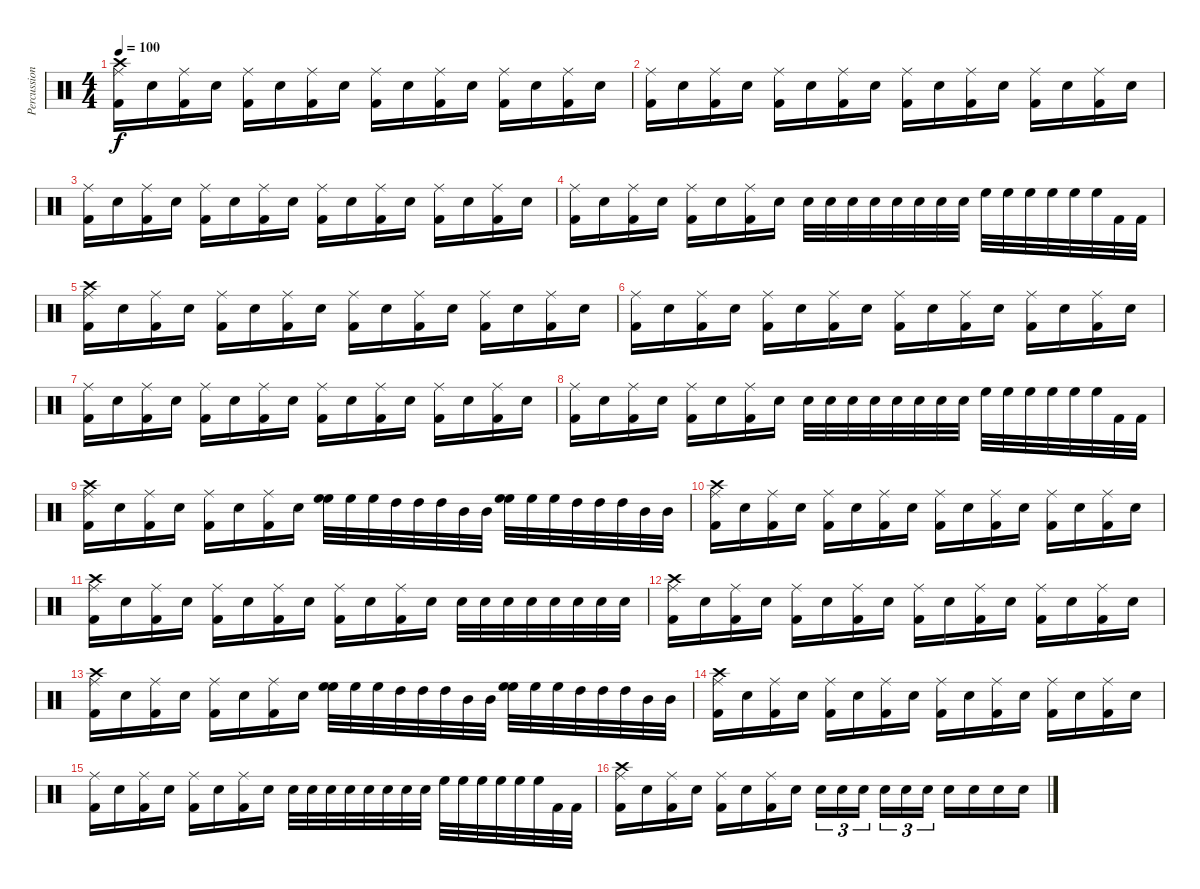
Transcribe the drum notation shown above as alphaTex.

\track ("Percussion" "Percussion") {instrument percussion}
\staff {score}
\articulation defaults
\ts (4 4)
\tempo 100
\clef neutral
\ks c
("Crash high (hit)" "Ride (middle)" "Kick (hit) 2").16{dy f} "Snare (hit) 2".16 ("Ride (middle)" "Kick (hit) 2").16 "Snare (hit) 2".16 ("Ride (middle)" "Kick (hit) 2").16 "Snare (hit) 2".16 ("Ride (middle)" "Kick (hit) 2").16 "Snare (hit) 2".16 ("Ride (middle)" "Kick (hit) 2").16 "Snare (hit) 2".16 ("Ride (middle)" "Kick (hit) 2").16 "Snare (hit) 2".16 ("Ride (middle)" "Kick (hit) 2").16 "Snare (hit) 2".16 ("Ride (middle)" "Kick (hit) 2").16 "Snare (hit) 2".16 |
("Ride (middle)" "Kick (hit) 2").16 "Snare (hit) 2".16 ("Ride (middle)" "Kick (hit) 2").16 "Snare (hit) 2".16 ("Ride (middle)" "Kick (hit) 2").16 "Snare (hit) 2".16 ("Ride (middle)" "Kick (hit) 2").16 "Snare (hit) 2".16 ("Ride (middle)" "Kick (hit) 2").16 "Snare (hit) 2".16 ("Ride (middle)" "Kick (hit) 2").16 "Snare (hit) 2".16 ("Ride (middle)" "Kick (hit) 2").16 "Snare (hit) 2".16 ("Ride (middle)" "Kick (hit) 2").16 "Snare (hit) 2".16 |
("Ride (middle)" "Kick (hit) 2").16 "Snare (hit) 2".16 ("Ride (middle)" "Kick (hit) 2").16 "Snare (hit) 2".16 ("Ride (middle)" "Kick (hit) 2").16 "Snare (hit) 2".16 ("Ride (middle)" "Kick (hit) 2").16 "Snare (hit) 2".16 ("Ride (middle)" "Kick (hit) 2").16 "Snare (hit) 2".16 ("Ride (middle)" "Kick (hit) 2").16 "Snare (hit) 2".16 ("Ride (middle)" "Kick (hit) 2").16 "Snare (hit) 2".16 ("Ride (middle)" "Kick (hit) 2").16 "Snare (hit) 2".16 |
("Ride (middle)" "Kick (hit) 2").16 "Snare (hit) 2".16 ("Ride (middle)" "Kick (hit) 2").16 "Snare (hit) 2".16 ("Ride (middle)" "Kick (hit) 2").16 "Snare (hit) 2".16 ("Ride (middle)" "Kick (hit) 2").16 "Snare (hit) 2".16 "Snare (hit) 2".32 "Snare (hit) 2".32 "Snare (hit) 2".32 "Snare (hit) 2".32 "Snare (hit) 2".32 "Snare (hit) 2".32 "Snare (hit) 2".32 "Snare (hit) 2".32 "High Floor Tom (hit)".32 "High Floor Tom (hit)".32 "High Floor Tom (hit)".32 "High Floor Tom (hit)".32 "High Floor Tom (hit)".32 "High Floor Tom (hit)".32 "Kick (hit) 2".32 "Kick (hit) 2".32 |
("Crash high (hit)" "Ride (middle)" "Kick (hit) 2").16 "Snare (hit) 2".16 ("Ride (middle)" "Kick (hit) 2").16 "Snare (hit) 2".16 ("Ride (middle)" "Kick (hit) 2").16 "Snare (hit) 2".16 ("Ride (middle)" "Kick (hit) 2").16 "Snare (hit) 2".16 ("Ride (middle)" "Kick (hit) 2").16 "Snare (hit) 2".16 ("Ride (middle)" "Kick (hit) 2").16 "Snare (hit) 2".16 ("Ride (middle)" "Kick (hit) 2").16 "Snare (hit) 2".16 ("Ride (middle)" "Kick (hit) 2").16 "Snare (hit) 2".16 |
("Ride (middle)" "Kick (hit) 2").16 "Snare (hit) 2".16 ("Ride (middle)" "Kick (hit) 2").16 "Snare (hit) 2".16 ("Ride (middle)" "Kick (hit) 2").16 "Snare (hit) 2".16 ("Ride (middle)" "Kick (hit) 2").16 "Snare (hit) 2".16 ("Ride (middle)" "Kick (hit) 2").16 "Snare (hit) 2".16 ("Ride (middle)" "Kick (hit) 2").16 "Snare (hit) 2".16 ("Ride (middle)" "Kick (hit) 2").16 "Snare (hit) 2".16 ("Ride (middle)" "Kick (hit) 2").16 "Snare (hit) 2".16 |
("Ride (middle)" "Kick (hit) 2").16 "Snare (hit) 2".16 ("Ride (middle)" "Kick (hit) 2").16 "Snare (hit) 2".16 ("Ride (middle)" "Kick (hit) 2").16 "Snare (hit) 2".16 ("Ride (middle)" "Kick (hit) 2").16 "Snare (hit) 2".16 ("Ride (middle)" "Kick (hit) 2").16 "Snare (hit) 2".16 ("Ride (middle)" "Kick (hit) 2").16 "Snare (hit) 2".16 ("Ride (middle)" "Kick (hit) 2").16 "Snare (hit) 2".16 ("Ride (middle)" "Kick (hit) 2").16 "Snare (hit) 2".16 |
("Ride (middle)" "Kick (hit) 2").16 "Snare (hit) 2".16 ("Ride (middle)" "Kick (hit) 2").16 "Snare (hit) 2".16 ("Ride (middle)" "Kick (hit) 2").16 "Snare (hit) 2".16 ("Ride (middle)" "Kick (hit) 2").16 "Snare (hit) 2".16 "Snare (hit) 2".32 "Snare (hit) 2".32 "Snare (hit) 2".32 "Snare (hit) 2".32 "Snare (hit) 2".32 "Snare (hit) 2".32 "Snare (hit) 2".32 "Snare (hit) 2".32 "High Floor Tom (hit)".32 "High Floor Tom (hit)".32 "High Floor Tom (hit)".32 "High Floor Tom (hit)".32 "High Floor Tom (hit)".32 "High Floor Tom (hit)".32 "Kick (hit) 2".32 "Kick (hit) 2".32 |
("Crash high (hit)" "Ride (middle)" "Kick (hit) 2").16 "Snare (hit) 2".16 ("Ride (middle)" "Kick (hit) 2").16 "Snare (hit) 2".16 ("Ride (middle)" "Kick (hit) 2").16 "Snare (hit) 2".16 ("Ride (middle)" "Kick (hit) 2").16 "Snare (hit) 2".16 ("High Floor Tom (hit)" "High Floor Tom (hit)").32 "High Floor Tom (hit)".32 "High Floor Tom (hit)".32 "High Tom (hit)".32 "High Tom (hit)".32 "High Tom (hit)".32 "Mid Tom (hit)".32 "Mid Tom (hit)".32 ("High Floor Tom (hit)" "High Floor Tom (hit)").32 "High Floor Tom (hit)".32 "High Floor Tom (hit)".32 "High Tom (hit)".32 "High Tom (hit)".32 "High Tom (hit)".32 "Mid Tom (hit)".32 "Mid Tom (hit)".32 |
("Crash high (hit)" "Ride (middle)" "Kick (hit) 2").16 "Snare (hit) 2".16 ("Ride (middle)" "Kick (hit) 2").16 "Snare (hit) 2".16 ("Ride (middle)" "Kick (hit) 2").16 "Snare (hit) 2".16 ("Ride (middle)" "Kick (hit) 2").16 "Snare (hit) 2".16 ("Ride (middle)" "Kick (hit) 2").16 "Snare (hit) 2".16 ("Ride (middle)" "Kick (hit) 2").16 "Snare (hit) 2".16 ("Ride (middle)" "Kick (hit) 2").16 "Snare (hit) 2".16 ("Ride (middle)" "Kick (hit) 2").16 "Snare (hit) 2".16 |
("Crash high (hit)" "Ride (middle)" "Kick (hit) 2").16 "Snare (hit) 2".16 ("Ride (middle)" "Kick (hit) 2").16 "Snare (hit) 2".16 ("Ride (middle)" "Kick (hit) 2").16 "Snare (hit) 2".16 ("Ride (middle)" "Kick (hit) 2").16 "Snare (hit) 2".16 ("Ride (middle)" "Kick (hit) 2").16 "Snare (hit) 2".16 ("Ride (middle)" "Kick (hit) 2").16 "Snare (hit) 2".16 "Snare (hit) 2".32 "Snare (hit) 2".32 "Snare (hit) 2".32 "Snare (hit) 2".32 "Snare (hit) 2".32 "Snare (hit) 2".32 "Snare (hit) 2".32 "Snare (hit) 2".32 |
("Crash high (hit)" "Ride (middle)" "Kick (hit) 2").16 "Snare (hit) 2".16 ("Ride (middle)" "Kick (hit) 2").16 "Snare (hit) 2".16 ("Ride (middle)" "Kick (hit) 2").16 "Snare (hit) 2".16 ("Ride (middle)" "Kick (hit) 2").16 "Snare (hit) 2".16 ("Ride (middle)" "Kick (hit) 2").16 "Snare (hit) 2".16 ("Ride (middle)" "Kick (hit) 2").16 "Snare (hit) 2".16 ("Ride (middle)" "Kick (hit) 2").16 "Snare (hit) 2".16 ("Ride (middle)" "Kick (hit) 2").16 "Snare (hit) 2".16 |
("Crash high (hit)" "Ride (middle)" "Kick (hit) 2").16 "Snare (hit) 2".16 ("Ride (middle)" "Kick (hit) 2").16 "Snare (hit) 2".16 ("Ride (middle)" "Kick (hit) 2").16 "Snare (hit) 2".16 ("Ride (middle)" "Kick (hit) 2").16 "Snare (hit) 2".16 ("High Floor Tom (hit)" "High Floor Tom (hit)").32 "High Floor Tom (hit)".32 "High Floor Tom (hit)".32 "High Tom (hit)".32 "High Tom (hit)".32 "High Tom (hit)".32 "Mid Tom (hit)".32 "Mid Tom (hit)".32 ("High Floor Tom (hit)" "High Floor Tom (hit)").32 "High Floor Tom (hit)".32 "High Floor Tom (hit)".32 "High Tom (hit)".32 "High Tom (hit)".32 "High Tom (hit)".32 "Mid Tom (hit)".32 "Mid Tom (hit)".32 |
("Crash high (hit)" "Ride (middle)" "Kick (hit) 2").16 "Snare (hit) 2".16 ("Ride (middle)" "Kick (hit) 2").16 "Snare (hit) 2".16 ("Ride (middle)" "Kick (hit) 2").16 "Snare (hit) 2".16 ("Ride (middle)" "Kick (hit) 2").16 "Snare (hit) 2".16 ("Ride (middle)" "Kick (hit) 2").16 "Snare (hit) 2".16 ("Ride (middle)" "Kick (hit) 2").16 "Snare (hit) 2".16 ("Ride (middle)" "Kick (hit) 2").16 "Snare (hit) 2".16 ("Ride (middle)" "Kick (hit) 2").16 "Snare (hit) 2".16 |
("Ride (middle)" "Kick (hit) 2").16 "Snare (hit) 2".16 ("Ride (middle)" "Kick (hit) 2").16 "Snare (hit) 2".16 ("Ride (middle)" "Kick (hit) 2").16 "Snare (hit) 2".16 ("Ride (middle)" "Kick (hit) 2").16 "Snare (hit) 2".16 "Snare (hit) 2".32 "Snare (hit) 2".32 "Snare (hit) 2".32 "Snare (hit) 2".32 "Snare (hit) 2".32 "Snare (hit) 2".32 "Snare (hit) 2".32 "Snare (hit) 2".32 "High Floor Tom (hit)".32 "High Floor Tom (hit)".32 "High Floor Tom (hit)".32 "High Floor Tom (hit)".32 "High Floor Tom (hit)".32 "High Floor Tom (hit)".32 "Kick (hit) 2".32 "Kick (hit) 2".32 |
("Crash high (hit)" "Ride (middle)" "Kick (hit) 2").16 "Snare (hit) 2".16 ("Ride (middle)" "Kick (hit) 2").16 "Snare (hit) 2".16 ("Ride (middle)" "Kick (hit) 2").16 "Snare (hit) 2".16 ("Ride (middle)" "Kick (hit) 2").16 "Snare (hit) 2".16 "Snare (hit) 2".16{tu (3 2)} "Snare (hit) 2".16{tu (3 2)} "Snare (hit) 2".16{tu (3 2)} "Snare (hit) 2".16{tu (3 2)} "Snare (hit) 2".16{tu (3 2)} "Snare (hit) 2".16{tu (3 2)} "Snare (hit) 2".16 "Snare (hit) 2".16 "Snare (hit) 2".16 "Snare (hit) 2".16
